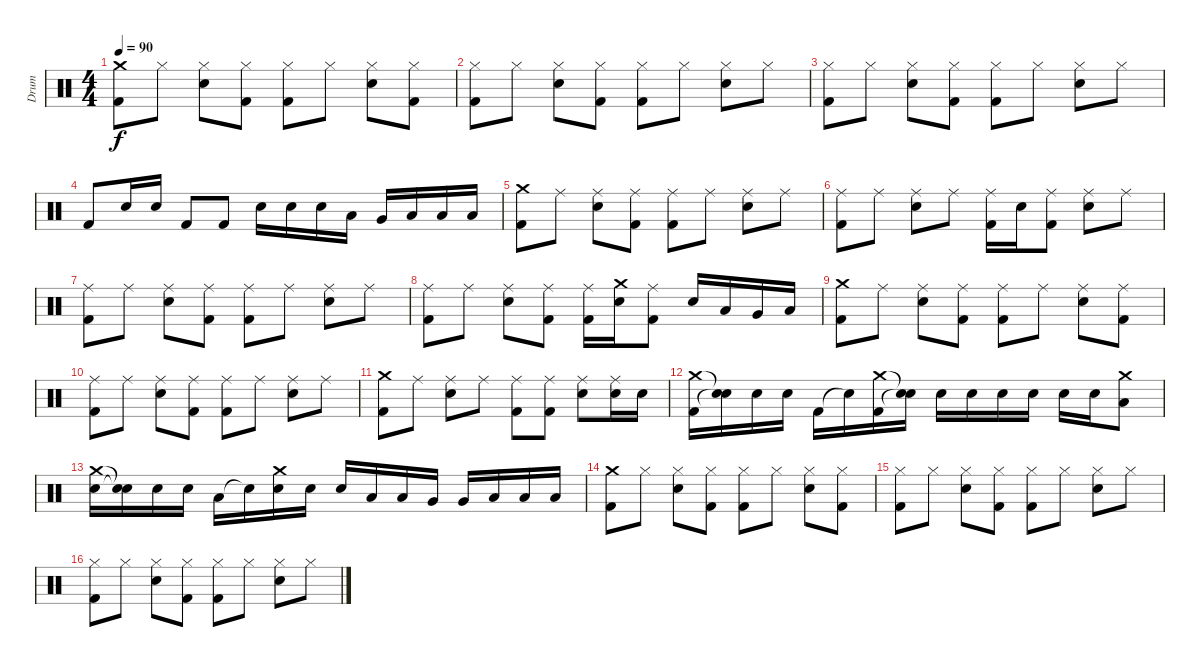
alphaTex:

\track ("Drum" "Drum") {instrument percussion}
\staff {score}
\articulation defaults
\ts (4 4)
\tempo 90
\clef neutral
\ks c
("Crash medium (hit)" "Kick (hit) 2").8{dy f} "Hi-Hat (closed)".8 ("Hi-Hat (closed)" "Snare (hit) 2").8 ("Hi-Hat (closed)" "Kick (hit) 2").8 ("Hi-Hat (closed)" "Kick (hit) 2").8 "Hi-Hat (closed)".8 ("Hi-Hat (closed)" "Snare (hit) 2").8 ("Hi-Hat (closed)" "Kick (hit) 2").8 |
("Hi-Hat (closed)" "Kick (hit) 2").8 "Hi-Hat (closed)".8 ("Hi-Hat (closed)" "Snare (hit) 2").8 ("Hi-Hat (closed)" "Kick (hit) 2").8 ("Hi-Hat (closed)" "Kick (hit) 2").8 "Hi-Hat (closed)".8 ("Hi-Hat (closed)" "Snare (hit) 2").8 "Hi-Hat (closed)".8 |
("Hi-Hat (closed)" "Kick (hit) 2").8 "Hi-Hat (closed)".8 ("Hi-Hat (closed)" "Snare (hit) 2").8 ("Hi-Hat (closed)" "Kick (hit) 2").8 ("Hi-Hat (closed)" "Kick (hit) 2").8 "Hi-Hat (closed)".8 ("Hi-Hat (closed)" "Snare (hit) 2").8 "Hi-Hat (closed)".8 |
"Kick (hit) 2".8 "Snare (hit) 2".16 "Snare (hit) 2".16 "Kick (hit) 2".8 "Kick (hit) 2".8 "Snare (hit) 2".16 "Snare (hit) 2".16 "Snare (hit) 2".16 "Low Tom (hit)".16 "Very Low Tom (hit)".16 "Low Floor Tom (hit)".16 "Low Floor Tom (hit)".16 "Low Floor Tom (hit)".16 |
("Crash medium (hit)" "Kick (hit) 2").8 "Ride (middle)".8 ("Ride (middle)" "Snare (hit) 2").8 ("Ride (middle)" "Kick (hit) 2").8 ("Ride (middle)" "Kick (hit) 2").8 "Ride (middle)".8 ("Ride (middle)" "Snare (hit) 2").8 "Ride (middle)".8 |
("Ride (middle)" "Kick (hit) 2").8 "Ride (middle)".8 ("Ride (middle)" "Snare (hit) 2").8 "Ride (middle)".8 ("Ride (middle)" "Kick (hit) 2").16 "Snare (hit) 2".16 ("Ride (middle)" "Kick (hit) 2").8 ("Ride (middle)" "Snare (hit) 2").8 "Ride (middle)".8 |
("Ride (middle)" "Kick (hit) 2").8 "Ride (middle)".8 ("Ride (middle)" "Snare (hit) 2").8 ("Ride (middle)" "Kick (hit) 2").8 ("Ride (middle)" "Kick (hit) 2").8 "Ride (middle)".8 ("Ride (middle)" "Snare (hit) 2").8 "Ride (middle)".8 |
("Ride (middle)" "Kick (hit) 2").8 "Ride (middle)".8 ("Ride (middle)" "Snare (hit) 2").8 ("Ride (middle)" "Kick (hit) 2").8 ("Ride (middle)" "Kick (hit) 2").16 ("Crash medium (hit)" "Snare (hit) 2").16 ("Ride (middle)" "Kick (hit) 2").8 "Snare (hit) 2".16 "Low Tom (hit)".16 "Very Low Tom (hit)".16 "Low Floor Tom (hit)".16 |
("Crash medium (hit)" "Kick (hit) 2").8 "Ride (middle)".8 ("Ride (middle)" "Snare (hit) 2").8 ("Ride (middle)" "Kick (hit) 2").8 ("Ride (middle)" "Kick (hit) 2").8 "Ride (middle)".8 ("Ride (middle)" "Snare (hit) 2").8 ("Ride (middle)" "Kick (hit) 2").8 |
("Ride (middle)" "Kick (hit) 2").8 "Ride (middle)".8 ("Ride (middle)" "Snare (hit) 2").8 ("Ride (middle)" "Kick (hit) 2").8 ("Ride (middle)" "Kick (hit) 2").8 "Ride (middle)".8 ("Ride (middle)" "Snare (hit) 2").8 "Ride (middle)".8 |
("Crash medium (hit)" "Kick (hit) 2").8 "Ride (middle)".8 ("Ride (middle)" "Snare (hit) 2").8 "Ride (middle)".8 ("Ride (middle)" "Kick (hit) 2").8 ("Ride (middle)" "Kick (hit) 2").8 ("Ride (middle)" "Snare (hit) 2").8 ("Ride (middle)" "Snare (hit) 2").16 "Snare (hit) 2".16 |
("Crash medium (hit)" "Kick (hit) 2").16 ("Snare (hit)"{t} "Snare (hit)"{t}).16 "Snare (hit) 2".16 "Snare (hit) 2".16 "Kick (hit) 2".16 "Snare (hit)"{t}.16 ("Crash medium (hit)" "Kick (hit) 2").16 ("Snare (hit)"{t} "Snare (hit)"{t}).16 "Snare (hit) 2".16 "Snare (hit) 2".16 "Snare (hit) 2".16 "Snare (hit) 2".16 "Snare (hit) 2".16 "Snare (hit) 2".16 ("Crash medium (hit)" "Low Floor Tom (hit)").8 |
("Crash medium (hit)" "Snare (hit) 2").16 ("Snare (hit)"{t} "Snare (hit)"{t}).16 "Snare (hit) 2".16 "Snare (hit) 2".16 "Low Tom (hit)".16 "Snare (hit)"{t}.16 ("Crash medium (hit)" "Snare (hit) 2").16 "Snare (hit) 2".16 "Snare (hit) 2".16 "Low Tom (hit)".16 "Low Tom (hit)".16 "Very Low Tom (hit)".16 "Very Low Tom (hit)".16 "Low Floor Tom (hit)".16 "Low Floor Tom (hit)".16 "Low Floor Tom (hit)".16 |
("Crash medium (hit)" "Kick (hit) 2").8 "Hi-Hat (closed)".8 ("Hi-Hat (closed)" "Snare (hit) 2").8 ("Hi-Hat (closed)" "Kick (hit) 2").8 ("Hi-Hat (closed)" "Kick (hit) 2").8 "Hi-Hat (closed)".8 ("Hi-Hat (closed)" "Snare (hit) 2").8 ("Hi-Hat (closed)" "Kick (hit) 2").8 |
("Hi-Hat (closed)" "Kick (hit) 2").8 "Hi-Hat (closed)".8 ("Hi-Hat (closed)" "Snare (hit) 2").8 ("Hi-Hat (closed)" "Kick (hit) 2").8 ("Hi-Hat (closed)" "Kick (hit) 2").8 "Hi-Hat (closed)".8 ("Hi-Hat (closed)" "Snare (hit) 2").8 "Hi-Hat (closed)".8 |
("Hi-Hat (closed)" "Kick (hit) 2").8 "Hi-Hat (closed)".8 ("Hi-Hat (closed)" "Snare (hit) 2").8 ("Hi-Hat (closed)" "Kick (hit) 2").8 ("Hi-Hat (closed)" "Kick (hit) 2").8 "Hi-Hat (closed)".8 ("Hi-Hat (closed)" "Snare (hit) 2").8 "Hi-Hat (closed)".8
